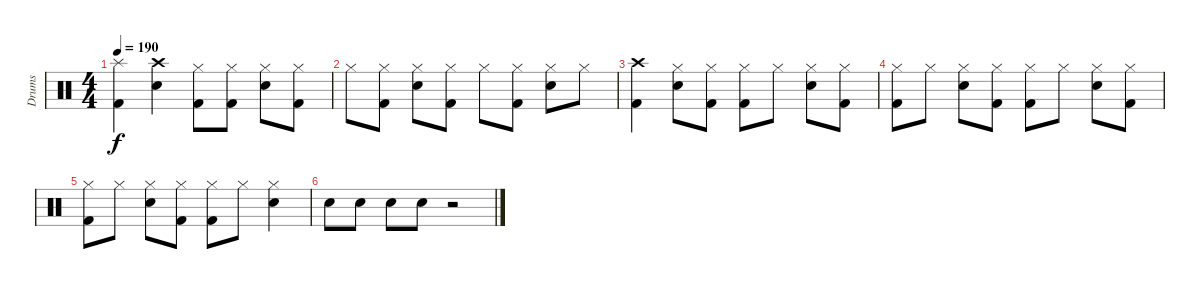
\track ("Drums" "Drums") {instrument percussion}
\staff {score}
\articulation defaults
\ts (4 4)
\tempo 190
\clef neutral
\ks c
("Kick (hit) 2" "Splash (hit)").4{dy f} ("Snare (hit) 2" "Crash high (hit)").4 ("Kick (hit) 2" "Hi-Hat (closed)").8 ("Kick (hit) 2" "Hi-Hat (closed)").8 ("Snare (hit) 2" "Hi-Hat (closed)").8 ("Kick (hit) 2" "Hi-Hat (closed)").8 |
"Hi-Hat (closed)".8 ("Kick (hit) 2" "Hi-Hat (closed)").8 ("Snare (hit) 2" "Hi-Hat (closed)").8 ("Kick (hit) 2" "Hi-Hat (closed)").8 "Hi-Hat (closed)".8 ("Kick (hit) 2" "Hi-Hat (closed)").8 ("Snare (hit) 2" "Hi-Hat (closed)").8 "Hi-Hat (closed)".8 |
("Kick (hit) 2" "Crash high (hit)").4 ("Snare (hit) 2" "Hi-Hat (closed)").8 ("Kick (hit) 2" "Hi-Hat (closed)").8 ("Kick (hit) 2" "Hi-Hat (closed)").8 "Hi-Hat (closed)".8 ("Snare (hit) 2" "Hi-Hat (closed)").8 ("Kick (hit) 2" "Hi-Hat (closed)").8 |
("Kick (hit) 2" "Hi-Hat (closed)").8 "Hi-Hat (closed)".8 ("Snare (hit) 2" "Hi-Hat (closed)").8 ("Kick (hit) 2" "Hi-Hat (closed)").8 ("Kick (hit) 2" "Hi-Hat (closed)").8 "Hi-Hat (closed)".8 ("Snare (hit) 2" "Hi-Hat (closed)").8 ("Kick (hit) 2" "Hi-Hat (closed)").8 |
("Kick (hit) 2" "Hi-Hat (closed)").8 "Hi-Hat (closed)".8 ("Snare (hit) 2" "Hi-Hat (closed)").8 ("Kick (hit) 2" "Hi-Hat (closed)").8 ("Kick (hit) 2" "Hi-Hat (closed)").8 "Hi-Hat (closed)".8 ("Snare (hit) 2" "Hi-Hat (closed)").4 |
"Snare (hit) 2".8 "Snare (hit) 2".8 "Snare (hit) 2".8 "Snare (hit) 2".8 r.2
